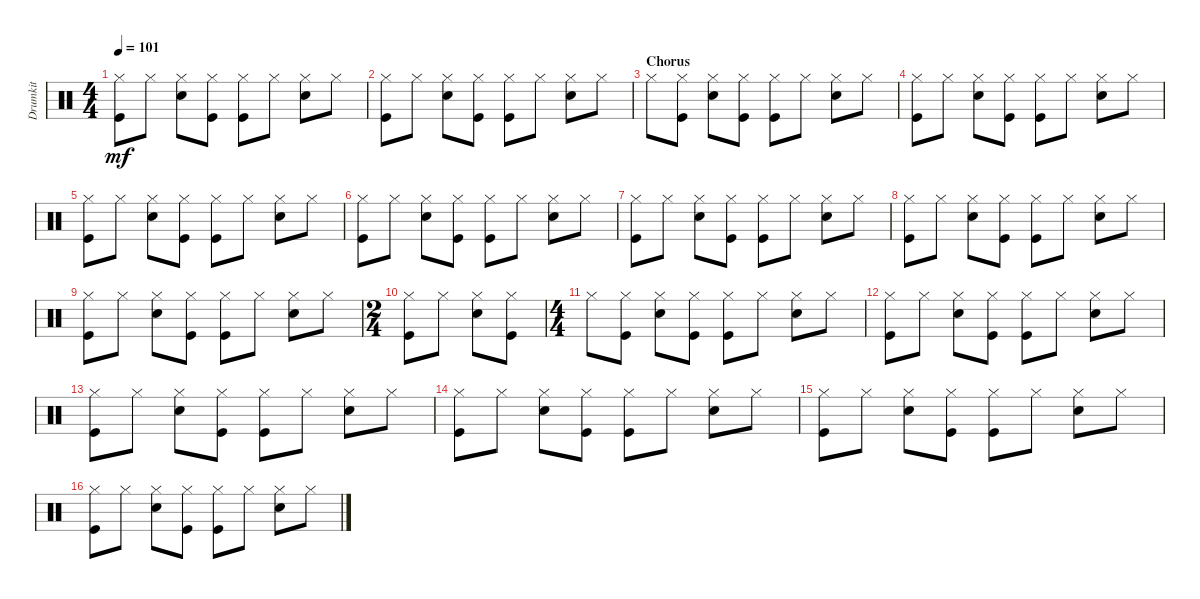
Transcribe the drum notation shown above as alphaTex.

\track ("Drumkit" "Drumkit") {instrument percussion}
\staff {score}
\articulation defaults
\ts (4 4)
\tempo 101
\clef neutral
\ks c
("Kick (hit)" "Hi-Hat (closed)").8{dy mf} "Hi-Hat (closed)".8 ("Hi-Hat (closed)" "Snare (hit) 2").8 ("Hi-Hat (closed)" "Kick (hit)").8 ("Hi-Hat (closed)" "Kick (hit)").8 "Hi-Hat (closed)".8 ("Hi-Hat (closed)" "Snare (hit) 2").8 "Hi-Hat (closed)".8 |
("Kick (hit)" "Hi-Hat (closed)").8 "Hi-Hat (closed)".8 ("Hi-Hat (closed)" "Snare (hit) 2").8 ("Hi-Hat (closed)" "Kick (hit)").8 ("Hi-Hat (closed)" "Kick (hit)").8 "Hi-Hat (closed)".8 ("Hi-Hat (closed)" "Snare (hit) 2").8 "Hi-Hat (closed)".8 |
\section ("" "Chorus")
"Hi-Hat (closed)".8 ("Hi-Hat (closed)" "Kick (hit)").8 ("Hi-Hat (closed)" "Snare (hit) 2").8 ("Hi-Hat (closed)" "Kick (hit)").8 ("Hi-Hat (closed)" "Kick (hit)").8 "Hi-Hat (closed)".8 ("Hi-Hat (closed)" "Snare (hit) 2").8 "Hi-Hat (closed)".8 |
("Kick (hit)" "Hi-Hat (closed)").8 "Hi-Hat (closed)".8 ("Hi-Hat (closed)" "Snare (hit) 2").8 ("Hi-Hat (closed)" "Kick (hit)").8 ("Hi-Hat (closed)" "Kick (hit)").8 "Hi-Hat (closed)".8 ("Hi-Hat (closed)" "Snare (hit) 2").8 "Hi-Hat (closed)".8 |
("Kick (hit)" "Hi-Hat (closed)").8 "Hi-Hat (closed)".8 ("Hi-Hat (closed)" "Snare (hit) 2").8 ("Hi-Hat (closed)" "Kick (hit)").8 ("Hi-Hat (closed)" "Kick (hit)").8 "Hi-Hat (closed)".8 ("Hi-Hat (closed)" "Snare (hit) 2").8 "Hi-Hat (closed)".8 |
("Kick (hit)" "Hi-Hat (closed)").8 "Hi-Hat (closed)".8 ("Hi-Hat (closed)" "Snare (hit) 2").8 ("Hi-Hat (closed)" "Kick (hit)").8 ("Hi-Hat (closed)" "Kick (hit)").8 "Hi-Hat (closed)".8 ("Hi-Hat (closed)" "Snare (hit) 2").8 "Hi-Hat (closed)".8 |
("Hi-Hat (closed)" "Kick (hit)").8 "Hi-Hat (closed)".8 ("Hi-Hat (closed)" "Snare (hit) 2").8 ("Hi-Hat (closed)" "Kick (hit)").8 ("Hi-Hat (closed)" "Kick (hit)").8 "Hi-Hat (closed)".8 ("Hi-Hat (closed)" "Snare (hit) 2").8 "Hi-Hat (closed)".8 |
("Kick (hit)" "Hi-Hat (closed)").8 "Hi-Hat (closed)".8 ("Hi-Hat (closed)" "Snare (hit) 2").8 ("Hi-Hat (closed)" "Kick (hit)").8 ("Hi-Hat (closed)" "Kick (hit)").8 "Hi-Hat (closed)".8 ("Hi-Hat (closed)" "Snare (hit) 2").8 "Hi-Hat (closed)".8 |
("Kick (hit)" "Hi-Hat (closed)").8 "Hi-Hat (closed)".8 ("Hi-Hat (closed)" "Snare (hit) 2").8 ("Hi-Hat (closed)" "Kick (hit)").8 ("Hi-Hat (closed)" "Kick (hit)").8 "Hi-Hat (closed)".8 ("Hi-Hat (closed)" "Snare (hit) 2").8 "Hi-Hat (closed)".8 |
\ts (2 4)
("Kick (hit)" "Hi-Hat (closed)").8 "Hi-Hat (closed)".8 ("Hi-Hat (closed)" "Snare (hit) 2").8 ("Hi-Hat (closed)" "Kick (hit)").8 |
\ts (4 4)
"Hi-Hat (closed)".8 ("Hi-Hat (closed)" "Kick (hit)").8 ("Hi-Hat (closed)" "Snare (hit) 2").8 ("Hi-Hat (closed)" "Kick (hit)").8 ("Hi-Hat (closed)" "Kick (hit)").8 "Hi-Hat (closed)".8 ("Hi-Hat (closed)" "Snare (hit) 2").8 "Hi-Hat (closed)".8 |
("Kick (hit)" "Hi-Hat (closed)").8 "Hi-Hat (closed)".8 ("Hi-Hat (closed)" "Snare (hit) 2").8 ("Hi-Hat (closed)" "Kick (hit)").8 ("Hi-Hat (closed)" "Kick (hit)").8 "Hi-Hat (closed)".8 ("Hi-Hat (closed)" "Snare (hit) 2").8 "Hi-Hat (closed)".8 |
("Kick (hit)" "Hi-Hat (closed)").8 "Hi-Hat (closed)".8 ("Hi-Hat (closed)" "Snare (hit) 2").8 ("Hi-Hat (closed)" "Kick (hit)").8 ("Hi-Hat (closed)" "Kick (hit)").8 "Hi-Hat (closed)".8 ("Hi-Hat (closed)" "Snare (hit) 2").8 "Hi-Hat (closed)".8 |
("Kick (hit)" "Hi-Hat (closed)").8 "Hi-Hat (closed)".8 ("Hi-Hat (closed)" "Snare (hit) 2").8 ("Hi-Hat (closed)" "Kick (hit)").8 ("Hi-Hat (closed)" "Kick (hit)").8 "Hi-Hat (closed)".8 ("Hi-Hat (closed)" "Snare (hit) 2").8 "Hi-Hat (closed)".8 |
("Hi-Hat (closed)" "Kick (hit)").8 "Hi-Hat (closed)".8 ("Hi-Hat (closed)" "Snare (hit) 2").8 ("Hi-Hat (closed)" "Kick (hit)").8 ("Hi-Hat (closed)" "Kick (hit)").8 "Hi-Hat (closed)".8 ("Hi-Hat (closed)" "Snare (hit) 2").8 "Hi-Hat (closed)".8 |
("Kick (hit)" "Hi-Hat (closed)").8 "Hi-Hat (closed)".8 ("Hi-Hat (closed)" "Snare (hit) 2").8 ("Hi-Hat (closed)" "Kick (hit)").8 ("Hi-Hat (closed)" "Kick (hit)").8 "Hi-Hat (closed)".8 ("Hi-Hat (closed)" "Snare (hit) 2").8 "Hi-Hat (closed)".8
